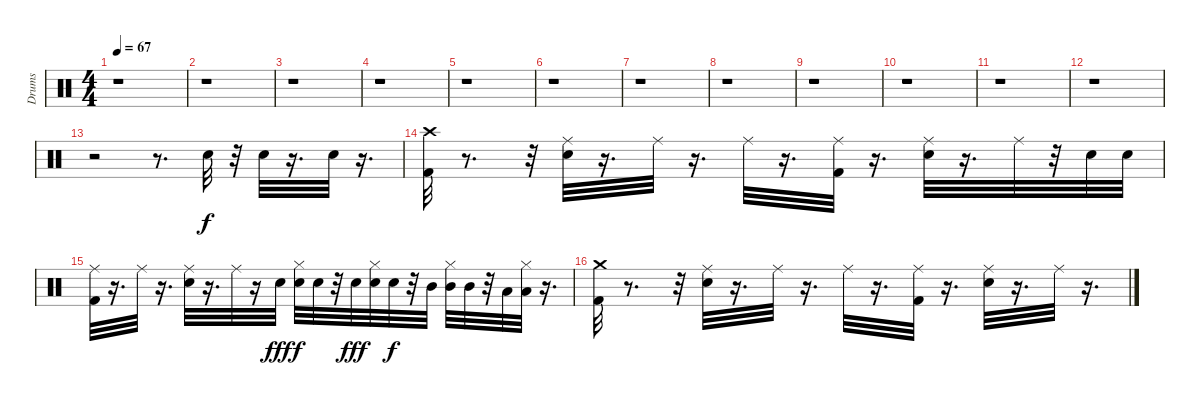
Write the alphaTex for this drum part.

\track ("Drums" "Drums") {instrument percussion}
\staff {score}
\articulation defaults
\ts (4 4)
\tempo 67
\clef neutral
\ks c
r.1{dy f} |
r.1 |
r.1 |
r.1 |
r.1 |
r.1 |
r.1 |
r.1 |
r.1 |
r.1 |
r.1 |
r.1 |
r.2 r.8{d} "Snare (hit) 2".32 r.32 "Snare (hit) 2".32 r.16{d} "Snare (hit) 2".32 r.16{d} |
("Kick (hit) 2" "Crash high (hit)").32 r.8{d} r.32 ("Snare (hit) 2" "Ride (middle)").32 r.16{d} "Ride (middle)".32 r.16{d} "Ride (middle)".32 r.16{d} ("Kick (hit) 2" "Ride (middle)").32 r.16{d} ("Snare (hit) 2" "Ride (middle)").32 r.16{d} "Ride (middle)".32 r.32 "Snare (hit) 2".32 "Snare (hit) 2".32 |
("Kick (hit) 2" "Ride (middle)").32 r.16{d} "Ride (middle)".32 r.16{d} ("Snare (hit) 2" "Ride (middle)").32 r.16{d} "Ride (middle)".32 r.16 "Snare (hit) 2".32{dy fff} ("Hi-Hat (closed)" "Snare (hit) 2").32{dy f} "Snare (hit) 2".32 r.32 "Snare (hit) 2".32{dy fff} ("Hi-Hat (closed)" "Snare (hit) 2").32 "Snare (hit) 2".32{dy f} r.32 "Mid Tom (hit)".32 ("Hi-Hat (closed)" "Mid Tom (hit)").32 "Mid Tom (hit)".32 r.32 "Low Tom (hit)".32 ("Hi-Hat (closed)" "Low Tom (hit)").32 r.16{d} |
("Crash medium (hit)" "Kick (hit) 2").32 r.8{d} r.32 ("Ride (middle)" "Snare (hit) 2").32 r.16{d} "Ride (middle)".32 r.16{d} "Ride (middle)".32 r.16{d} ("Ride (middle)" "Kick (hit) 2").32 r.16{d} ("Ride (middle)" "Snare (hit) 2").32 r.16{d} "Ride (middle)".32 r.16{d}
